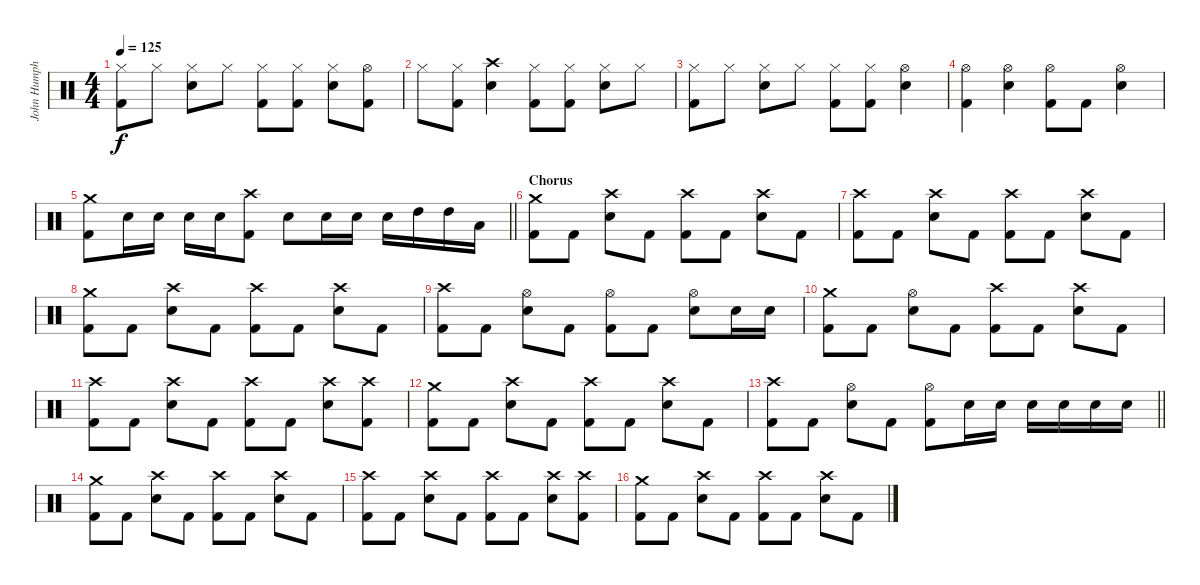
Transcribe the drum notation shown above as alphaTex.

\track ("John Humphrey - Drums" "John Humph") {instrument percussion}
\staff {score}
\articulation defaults
\ts (4 4)
\tempo 125
\clef neutral
\ks c
("Hi-Hat (closed)" "Kick (hit) 2").8{dy f} "Hi-Hat (closed)".8 ("Hi-Hat (closed)" "Electric Snare (hit)").8 "Hi-Hat (closed)".8 ("Hi-Hat (closed)" "Kick (hit) 2").8 ("Hi-Hat (closed)" "Kick (hit) 2").8 ("Hi-Hat (closed)" "Electric Snare (hit)").8 ("Hi-Hat (open)" "Kick (hit) 2").8 |
"Hi-Hat (closed)".8 ("Hi-Hat (closed)" "Kick (hit) 2").8 ("Crash high (hit)" "Electric Snare (hit)").4 ("Hi-Hat (closed)" "Kick (hit) 2").8 ("Hi-Hat (closed)" "Kick (hit) 2").8 ("Hi-Hat (closed)" "Electric Snare (hit)").8 "Hi-Hat (closed)".8 |
("Hi-Hat (closed)" "Kick (hit) 2").8 "Hi-Hat (closed)".8 ("Hi-Hat (closed)" "Electric Snare (hit)").8 "Hi-Hat (closed)".8 ("Hi-Hat (closed)" "Kick (hit) 2").8 ("Hi-Hat (closed)" "Kick (hit) 2").8 ("Hi-Hat (open)" "Electric Snare (hit)").4 |
("Hi-Hat (open)" "Kick (hit) 2").4 ("Hi-Hat (open)" "Electric Snare (hit)").4 ("Hi-Hat (open)" "Kick (hit) 2").8 "Kick (hit) 2".8 ("Hi-Hat (open)" "Electric Snare (hit)").4 |
\barLineRight lightlight
("Crash medium (hit)" "Kick (hit) 2").8 "Electric Snare (hit)".16 "Electric Snare (hit)".16 "Electric Snare (hit)".16 "Electric Snare (hit)".16 ("Crash high (hit)" "Kick (hit) 2").8 "Electric Snare (hit)".8 "Electric Snare (hit)".16 "Electric Snare (hit)".16 "Electric Snare (hit)".16 "High Tom (hit)".16 "High Tom (hit)".16 "Low Tom (hit)".16 |
\section ("" "Chorus")
("Crash medium (hit)" "Kick (hit) 2").8 "Kick (hit) 2".8 ("Crash high (hit)" "Electric Snare (hit)").8 "Kick (hit) 2".8 ("Crash high (hit)" "Kick (hit) 2").8 "Kick (hit) 2".8 ("Crash high (hit)" "Electric Snare (hit)").8 "Kick (hit) 2".8 |
("Crash high (hit)" "Kick (hit) 2").8 "Kick (hit) 2".8 ("Crash high (hit)" "Electric Snare (hit)").8 "Kick (hit) 2".8 ("Crash high (hit)" "Kick (hit) 2").8 "Kick (hit) 2".8 ("Crash high (hit)" "Electric Snare (hit)").8 "Kick (hit) 2".8 |
("Crash medium (hit)" "Kick (hit) 2").8 "Kick (hit) 2".8 ("Crash high (hit)" "Electric Snare (hit)").8 "Kick (hit) 2".8 ("Crash high (hit)" "Kick (hit) 2").8 "Kick (hit) 2".8 ("Crash high (hit)" "Electric Snare (hit)").8 "Kick (hit) 2".8 |
("Crash high (hit)" "Kick (hit) 2").8 "Kick (hit) 2".8 ("Hi-Hat (open)" "Electric Snare (hit)").8 "Kick (hit) 2".8 ("Hi-Hat (open)" "Kick (hit) 2").8 "Kick (hit) 2".8 ("Hi-Hat (open)" "Electric Snare (hit)").8 "Electric Snare (hit)".16 "Electric Snare (hit)".16 |
("Crash medium (hit)" "Kick (hit) 2").8 "Kick (hit) 2".8 ("Hi-Hat (open)" "Electric Snare (hit)").8 "Kick (hit) 2".8 ("Crash high (hit)" "Kick (hit) 2").8 "Kick (hit) 2".8 ("Crash high (hit)" "Electric Snare (hit)").8 "Kick (hit) 2".8 |
("Crash high (hit)" "Kick (hit) 2").8 "Kick (hit) 2".8 ("Crash high (hit)" "Electric Snare (hit)").8 "Kick (hit) 2".8 ("Crash high (hit)" "Kick (hit) 2").8 "Kick (hit) 2".8 ("Crash high (hit)" "Electric Snare (hit)").8 ("Crash high (hit)" "Kick (hit) 2").8 |
("Crash medium (hit)" "Kick (hit) 2").8 "Kick (hit) 2".8 ("Crash high (hit)" "Electric Snare (hit)").8 "Kick (hit) 2".8 ("Crash high (hit)" "Kick (hit) 2").8 "Kick (hit) 2".8 ("Crash high (hit)" "Electric Snare (hit)").8 "Kick (hit) 2".8 |
\barLineRight lightlight
("Crash high (hit)" "Kick (hit) 2").8 "Kick (hit) 2".8 ("Hi-Hat (open)" "Electric Snare (hit)").8 "Kick (hit) 2".8 ("Hi-Hat (open)" "Kick (hit) 2").8 "Electric Snare (hit)".16 "Electric Snare (hit)".16 "Electric Snare (hit)".16 "Electric Snare (hit)".16 "Electric Snare (hit)".16 "Electric Snare (hit)".16 |
("Crash medium (hit)" "Kick (hit) 2").8 "Kick (hit) 2".8 ("Crash high (hit)" "Electric Snare (hit)").8 "Kick (hit) 2".8 ("Crash high (hit)" "Kick (hit) 2").8 "Kick (hit) 2".8 ("Crash high (hit)" "Electric Snare (hit)").8 "Kick (hit) 2".8 |
("Crash high (hit)" "Kick (hit) 2").8 "Kick (hit) 2".8 ("Crash high (hit)" "Electric Snare (hit)").8 "Kick (hit) 2".8 ("Crash high (hit)" "Kick (hit) 2").8 "Kick (hit) 2".8 ("Crash high (hit)" "Electric Snare (hit)").8 ("Crash high (hit)" "Kick (hit) 2").8 |
("Crash medium (hit)" "Kick (hit) 2").8 "Kick (hit) 2".8 ("Crash high (hit)" "Electric Snare (hit)").8 "Kick (hit) 2".8 ("Crash high (hit)" "Kick (hit) 2").8 "Kick (hit) 2".8 ("Crash high (hit)" "Electric Snare (hit)").8 "Kick (hit) 2".8
